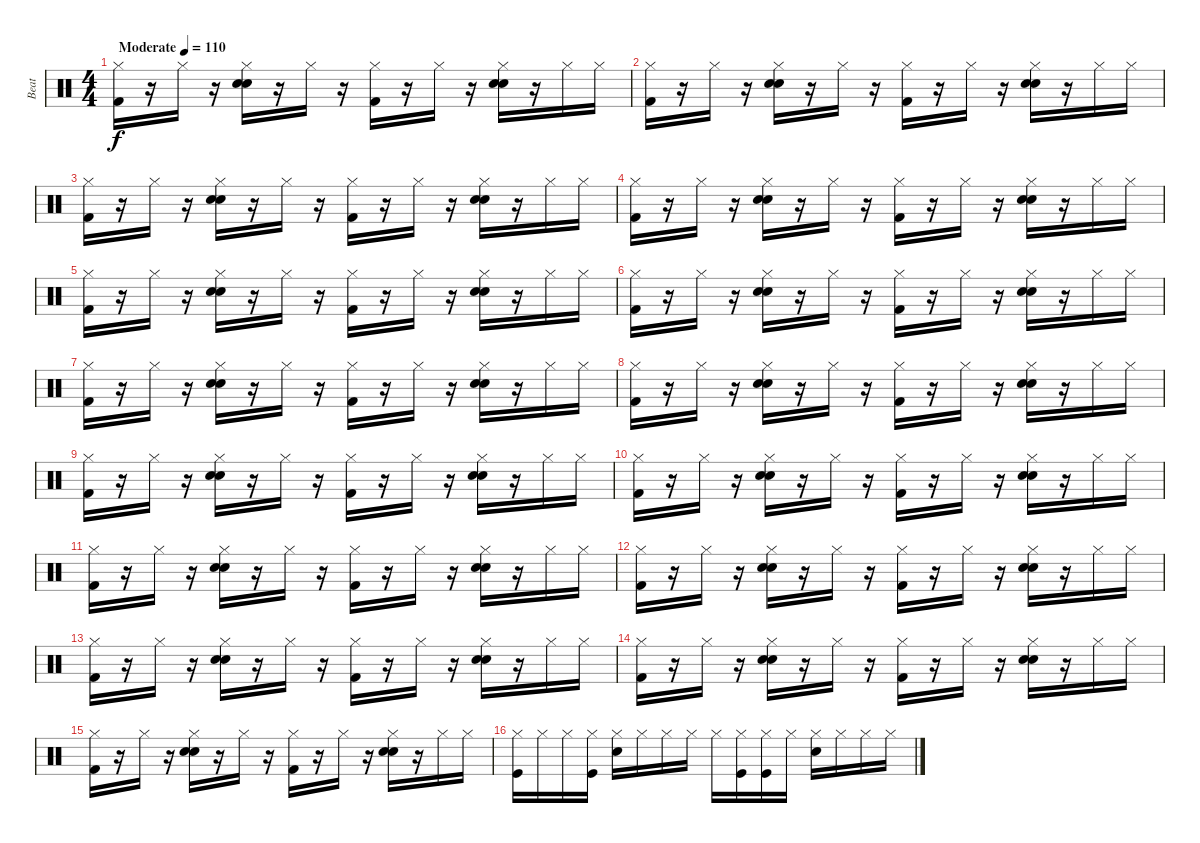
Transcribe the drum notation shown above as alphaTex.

\track ("Beat" "Beat") {instrument percussion}
\staff {score}
\articulation defaults
\ts (4 4)
\tempo (110 "Moderate")
\clef neutral
\ks c
("Hi-Hat (closed)" "Kick (hit) 2").16{dy f} r.16 "Hi-Hat (closed)".16 r.16 ("Hi-Hat (closed)" "Electric Snare (hit)" "Hand Clap (hit)").16 r.16 "Hi-Hat (closed)".16 r.16 ("Hi-Hat (closed)" "Kick (hit) 2").16 r.16 "Hi-Hat (closed)".16 r.16 ("Hi-Hat (closed)" "Electric Snare (hit)" "Hand Clap (hit)").16 r.16 "Hi-Hat (closed)".16 "Hi-Hat (closed)".16 |
("Hi-Hat (closed)" "Kick (hit) 2").16 r.16 "Hi-Hat (closed)".16 r.16 ("Hi-Hat (closed)" "Electric Snare (hit)" "Hand Clap (hit)").16 r.16 "Hi-Hat (closed)".16 r.16 ("Hi-Hat (closed)" "Kick (hit) 2").16 r.16 "Hi-Hat (closed)".16 r.16 ("Hi-Hat (closed)" "Electric Snare (hit)" "Hand Clap (hit)").16 r.16 "Hi-Hat (closed)".16 "Hi-Hat (closed)".16 |
("Hi-Hat (closed)" "Kick (hit) 2").16 r.16 "Hi-Hat (closed)".16 r.16 ("Hi-Hat (closed)" "Electric Snare (hit)" "Hand Clap (hit)").16 r.16 "Hi-Hat (closed)".16 r.16 ("Hi-Hat (closed)" "Kick (hit) 2").16 r.16 "Hi-Hat (closed)".16 r.16 ("Hi-Hat (closed)" "Electric Snare (hit)" "Hand Clap (hit)").16 r.16 "Hi-Hat (closed)".16 "Hi-Hat (closed)".16 |
("Hi-Hat (closed)" "Kick (hit) 2").16 r.16 "Hi-Hat (closed)".16 r.16 ("Hi-Hat (closed)" "Electric Snare (hit)" "Hand Clap (hit)").16 r.16 "Hi-Hat (closed)".16 r.16 ("Hi-Hat (closed)" "Kick (hit) 2").16 r.16 "Hi-Hat (closed)".16 r.16 ("Hi-Hat (closed)" "Electric Snare (hit)" "Hand Clap (hit)").16 r.16 "Hi-Hat (closed)".16 "Hi-Hat (closed)".16 |
("Hi-Hat (closed)" "Kick (hit) 2").16 r.16 "Hi-Hat (closed)".16 r.16 ("Hi-Hat (closed)" "Electric Snare (hit)" "Hand Clap (hit)").16 r.16 "Hi-Hat (closed)".16 r.16 ("Hi-Hat (closed)" "Kick (hit) 2").16 r.16 "Hi-Hat (closed)".16 r.16 ("Hi-Hat (closed)" "Electric Snare (hit)" "Hand Clap (hit)").16 r.16 "Hi-Hat (closed)".16 "Hi-Hat (closed)".16 |
("Hi-Hat (closed)" "Kick (hit) 2").16 r.16 "Hi-Hat (closed)".16 r.16 ("Hi-Hat (closed)" "Electric Snare (hit)" "Hand Clap (hit)").16 r.16 "Hi-Hat (closed)".16 r.16 ("Hi-Hat (closed)" "Kick (hit) 2").16 r.16 "Hi-Hat (closed)".16 r.16 ("Hi-Hat (closed)" "Electric Snare (hit)" "Hand Clap (hit)").16 r.16 "Hi-Hat (closed)".16 "Hi-Hat (closed)".16 |
("Hi-Hat (closed)" "Kick (hit) 2").16 r.16 "Hi-Hat (closed)".16 r.16 ("Hi-Hat (closed)" "Electric Snare (hit)" "Hand Clap (hit)").16 r.16 "Hi-Hat (closed)".16 r.16 ("Hi-Hat (closed)" "Kick (hit) 2").16 r.16 "Hi-Hat (closed)".16 r.16 ("Hi-Hat (closed)" "Electric Snare (hit)" "Hand Clap (hit)").16 r.16 "Hi-Hat (closed)".16 "Hi-Hat (closed)".16 |
("Hi-Hat (closed)" "Kick (hit) 2").16 r.16 "Hi-Hat (closed)".16 r.16 ("Hi-Hat (closed)" "Electric Snare (hit)" "Hand Clap (hit)").16 r.16 "Hi-Hat (closed)".16 r.16 ("Hi-Hat (closed)" "Kick (hit) 2").16 r.16 "Hi-Hat (closed)".16 r.16 ("Hi-Hat (closed)" "Electric Snare (hit)" "Hand Clap (hit)").16 r.16 "Hi-Hat (closed)".16 "Hi-Hat (closed)".16 |
("Hi-Hat (closed)" "Kick (hit) 2").16 r.16 "Hi-Hat (closed)".16 r.16 ("Hi-Hat (closed)" "Electric Snare (hit)" "Hand Clap (hit)").16 r.16 "Hi-Hat (closed)".16 r.16 ("Hi-Hat (closed)" "Kick (hit) 2").16 r.16 "Hi-Hat (closed)".16 r.16 ("Hi-Hat (closed)" "Electric Snare (hit)" "Hand Clap (hit)").16 r.16 "Hi-Hat (closed)".16 "Hi-Hat (closed)".16 |
("Hi-Hat (closed)" "Kick (hit) 2").16 r.16 "Hi-Hat (closed)".16 r.16 ("Hi-Hat (closed)" "Electric Snare (hit)" "Hand Clap (hit)").16 r.16 "Hi-Hat (closed)".16 r.16 ("Hi-Hat (closed)" "Kick (hit) 2").16 r.16 "Hi-Hat (closed)".16 r.16 ("Hi-Hat (closed)" "Electric Snare (hit)" "Hand Clap (hit)").16 r.16 "Hi-Hat (closed)".16 "Hi-Hat (closed)".16 |
("Hi-Hat (closed)" "Kick (hit) 2").16 r.16 "Hi-Hat (closed)".16 r.16 ("Hi-Hat (closed)" "Electric Snare (hit)" "Hand Clap (hit)").16 r.16 "Hi-Hat (closed)".16 r.16 ("Hi-Hat (closed)" "Kick (hit) 2").16 r.16 "Hi-Hat (closed)".16 r.16 ("Hi-Hat (closed)" "Electric Snare (hit)" "Hand Clap (hit)").16 r.16 "Hi-Hat (closed)".16 "Hi-Hat (closed)".16 |
("Hi-Hat (closed)" "Kick (hit) 2").16 r.16 "Hi-Hat (closed)".16 r.16 ("Hi-Hat (closed)" "Electric Snare (hit)" "Hand Clap (hit)").16 r.16 "Hi-Hat (closed)".16 r.16 ("Hi-Hat (closed)" "Kick (hit) 2").16 r.16 "Hi-Hat (closed)".16 r.16 ("Hi-Hat (closed)" "Electric Snare (hit)" "Hand Clap (hit)").16 r.16 "Hi-Hat (closed)".16 "Hi-Hat (closed)".16 |
("Hi-Hat (closed)" "Kick (hit) 2").16 r.16 "Hi-Hat (closed)".16 r.16 ("Hi-Hat (closed)" "Electric Snare (hit)" "Hand Clap (hit)").16 r.16 "Hi-Hat (closed)".16 r.16 ("Hi-Hat (closed)" "Kick (hit) 2").16 r.16 "Hi-Hat (closed)".16 r.16 ("Hi-Hat (closed)" "Electric Snare (hit)" "Hand Clap (hit)").16 r.16 "Hi-Hat (closed)".16 "Hi-Hat (closed)".16 |
("Hi-Hat (closed)" "Kick (hit) 2").16 r.16 "Hi-Hat (closed)".16 r.16 ("Hi-Hat (closed)" "Electric Snare (hit)" "Hand Clap (hit)").16 r.16 "Hi-Hat (closed)".16 r.16 ("Hi-Hat (closed)" "Kick (hit) 2").16 r.16 "Hi-Hat (closed)".16 r.16 ("Hi-Hat (closed)" "Electric Snare (hit)" "Hand Clap (hit)").16 r.16 "Hi-Hat (closed)".16 "Hi-Hat (closed)".16 |
("Hi-Hat (closed)" "Kick (hit) 2").16 r.16 "Hi-Hat (closed)".16 r.16 ("Hi-Hat (closed)" "Electric Snare (hit)" "Hand Clap (hit)").16 r.16 "Hi-Hat (closed)".16 r.16 ("Hi-Hat (closed)" "Kick (hit) 2").16 r.16 "Hi-Hat (closed)".16 r.16 ("Hi-Hat (closed)" "Electric Snare (hit)" "Hand Clap (hit)").16 r.16 "Hi-Hat (closed)".16 "Hi-Hat (closed)".16 |
("Hi-Hat (closed)" "Kick (hit)").16 "Hi-Hat (closed)".16 "Hi-Hat (closed)".16 ("Hi-Hat (closed)" "Kick (hit)").16 ("Hi-Hat (closed)" "Snare (hit) 2").16 "Hi-Hat (closed)".16 "Hi-Hat (closed)".16 "Hi-Hat (closed)".16 "Hi-Hat (closed)".16 ("Hi-Hat (closed)" "Kick (hit)").16 ("Hi-Hat (closed)" "Kick (hit)").16 "Hi-Hat (closed)".16 ("Hi-Hat (closed)" "Snare (hit) 2").16 "Hi-Hat (closed)".16 "Hi-Hat (closed)".16 "Hi-Hat (closed)".16
